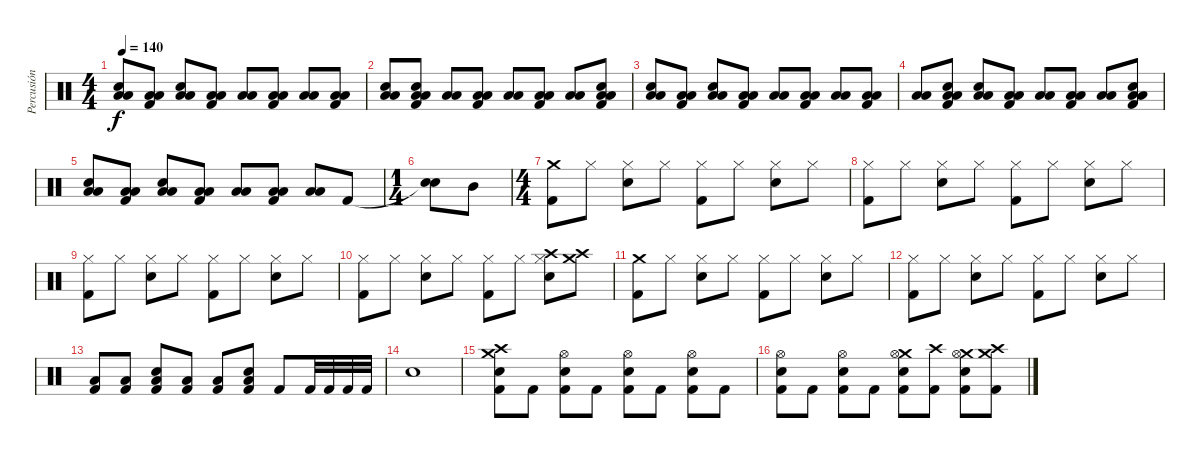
\track ("Percusión" "Percusión") {instrument percussion}
\staff {score}
\articulation defaults
\ts (4 4)
\tempo 140
\clef neutral
\ks c
("Snare (hit) 2" "Low Floor Tom (hit)" "Low Floor Tom (hit)").8{dy f} ("Low Floor Tom (hit)" "Low Floor Tom (hit)" "Kick (hit) 2").8 ("Snare (hit) 2" "Low Floor Tom (hit)" "Low Floor Tom (hit)").8 ("Low Floor Tom (hit)" "Low Floor Tom (hit)" "Kick (hit) 2").8 ("Low Floor Tom (hit)" "Low Floor Tom (hit)").8 ("Low Floor Tom (hit)" "Low Floor Tom (hit)" "Kick (hit) 2").8 ("Low Floor Tom (hit)" "Low Floor Tom (hit)").8 ("Low Floor Tom (hit)" "Low Floor Tom (hit)" "Kick (hit) 2").8 |
("Snare (hit) 2" "Low Floor Tom (hit)" "Low Floor Tom (hit)").8 ("Snare (hit) 2" "Low Floor Tom (hit)" "Low Floor Tom (hit)" "Kick (hit) 2").8 ("Low Floor Tom (hit)" "Low Floor Tom (hit)").8 ("Low Floor Tom (hit)" "Low Floor Tom (hit)" "Kick (hit) 2").8 ("Low Floor Tom (hit)" "Low Floor Tom (hit)").8 ("Low Floor Tom (hit)" "Low Floor Tom (hit)" "Kick (hit) 2").8 ("Low Floor Tom (hit)" "Low Floor Tom (hit)").8 ("Snare (hit) 2" "Low Floor Tom (hit)" "Low Floor Tom (hit)" "Kick (hit) 2").8 |
("Snare (hit) 2" "Low Floor Tom (hit)" "Low Floor Tom (hit)").8 ("Low Floor Tom (hit)" "Low Floor Tom (hit)" "Kick (hit) 2").8 ("Snare (hit) 2" "Low Floor Tom (hit)" "Low Floor Tom (hit)").8 ("Low Floor Tom (hit)" "Low Floor Tom (hit)" "Kick (hit) 2").8 ("Low Floor Tom (hit)" "Low Floor Tom (hit)").8 ("Low Floor Tom (hit)" "Low Floor Tom (hit)" "Kick (hit) 2").8 ("Low Floor Tom (hit)" "Low Floor Tom (hit)").8 ("Low Floor Tom (hit)" "Low Floor Tom (hit)" "Kick (hit) 2").8 |
("Low Floor Tom (hit)" "Low Floor Tom (hit)").8 ("Snare (hit) 2" "Low Floor Tom (hit)" "Low Floor Tom (hit)" "Kick (hit) 2").8 ("Snare (hit) 2" "Low Floor Tom (hit)" "Low Floor Tom (hit)").8 ("Low Floor Tom (hit)" "Low Floor Tom (hit)" "Kick (hit) 2").8 ("Low Floor Tom (hit)" "Low Floor Tom (hit)").8 ("Low Floor Tom (hit)" "Low Floor Tom (hit)" "Kick (hit) 2").8 ("Low Floor Tom (hit)" "Low Floor Tom (hit)").8 ("Snare (hit) 2" "Low Floor Tom (hit)" "Low Floor Tom (hit)" "Kick (hit) 2").8 |
("Snare (hit) 2" "Low Floor Tom (hit)" "Low Floor Tom (hit)").8 ("Low Floor Tom (hit)" "Low Floor Tom (hit)" "Kick (hit) 2").8 ("Snare (hit) 2" "Low Floor Tom (hit)" "Low Floor Tom (hit)").8 ("Low Floor Tom (hit)" "Low Floor Tom (hit)" "Kick (hit) 2").8 ("Low Floor Tom (hit)" "Low Floor Tom (hit)").8 ("Low Floor Tom (hit)" "Low Floor Tom (hit)" "Kick (hit) 2").8 ("Low Floor Tom (hit)" "Low Floor Tom (hit)").8 "Kick (hit) 2".8 |
\ts (1 4)
("Snare (hit)"{t} "Snare (hit) 2").8 "Mid Tom (hit)".8 |
\ts (4 4)
("Crash medium (hit)" "Kick (hit) 2").8 "Hi-Hat (closed)".8 ("Hi-Hat (closed)" "Snare (hit) 2").8 "Hi-Hat (closed)".8 ("Hi-Hat (closed)" "Kick (hit) 2").8 "Hi-Hat (closed)".8 ("Hi-Hat (closed)" "Snare (hit) 2").8 "Hi-Hat (closed)".8 |
("Hi-Hat (closed)" "Kick (hit) 2").8 "Hi-Hat (closed)".8 ("Hi-Hat (closed)" "Snare (hit) 2").8 "Hi-Hat (closed)".8 ("Hi-Hat (closed)" "Kick (hit) 2").8 "Hi-Hat (closed)".8 ("Hi-Hat (closed)" "Snare (hit) 2").8 "Hi-Hat (closed)".8 |
("Hi-Hat (closed)" "Kick (hit) 2").8 "Hi-Hat (closed)".8 ("Hi-Hat (closed)" "Snare (hit) 2").8 "Hi-Hat (closed)".8 ("Hi-Hat (closed)" "Kick (hit) 2").8 "Hi-Hat (closed)".8 ("Hi-Hat (closed)" "Snare (hit) 2").8 "Hi-Hat (closed)".8 |
("Hi-Hat (closed)" "Kick (hit) 2").8 "Hi-Hat (closed)".8 ("Hi-Hat (closed)" "Snare (hit) 2").8 "Hi-Hat (closed)".8 ("Hi-Hat (closed)" "Kick (hit) 2").8 "Hi-Hat (closed)".8 ("Crash high (hit)" "Hi-Hat (closed)" "Snare (hit) 2").8 ("Crash medium (hit)" "Crash high (hit)").8 |
("Crash medium (hit)" "Kick (hit) 2").8 "Hi-Hat (closed)".8 ("Hi-Hat (closed)" "Snare (hit) 2").8 "Hi-Hat (closed)".8 ("Hi-Hat (closed)" "Kick (hit) 2").8 "Hi-Hat (closed)".8 ("Hi-Hat (closed)" "Snare (hit) 2").8 "Hi-Hat (closed)".8 |
("Hi-Hat (closed)" "Kick (hit) 2").8 "Hi-Hat (closed)".8 ("Hi-Hat (closed)" "Snare (hit) 2").8 "Hi-Hat (closed)".8 ("Hi-Hat (closed)" "Kick (hit) 2").8 "Hi-Hat (closed)".8 ("Hi-Hat (closed)" "Snare (hit) 2").8 "Hi-Hat (closed)".8 |
("Low Floor Tom (hit)" "Kick (hit) 2").8 ("Low Floor Tom (hit)" "Kick (hit) 2").8 ("Low Floor Tom (hit)" "Snare (hit) 2" "Kick (hit) 2").8 ("Low Floor Tom (hit)" "Kick (hit) 2").8 ("Low Floor Tom (hit)" "Kick (hit) 2").8 ("Low Floor Tom (hit)" "Snare (hit) 2" "Kick (hit) 2").8 "Kick (hit) 2".8 "Kick (hit) 2".32 "Kick (hit) 2".32 "Kick (hit) 2".32 "Kick (hit) 2".32 |
"Snare (hit) 2".1 |
("Crash high (hit)" "Snare (hit) 2" "Crash medium (hit)" "Kick (hit) 2").8 "Kick (hit) 2".8 ("Snare (hit) 2" "Hi-Hat (open)" "Kick (hit) 2").8 "Kick (hit) 2".8 ("Snare (hit) 2" "Hi-Hat (open)" "Kick (hit) 2").8 "Kick (hit) 2".8 ("Snare (hit) 2" "Hi-Hat (open)" "Kick (hit) 2").8 "Kick (hit) 2".8 |
("Snare (hit) 2" "Hi-Hat (open)" "Kick (hit) 2").8 "Kick (hit) 2".8 ("Snare (hit) 2" "Hi-Hat (open)" "Kick (hit) 2").8 "Kick (hit) 2".8 ("Crash medium (hit)" "Snare (hit) 2" "Hi-Hat (open)" "Kick (hit) 2").8 ("Crash high (hit)" "Kick (hit) 2").8 ("Crash medium (hit)" "Snare (hit) 2" "Hi-Hat (open)" "Kick (hit) 2").8 ("Crash medium (hit)" "Crash high (hit)" "Kick (hit) 2").8
